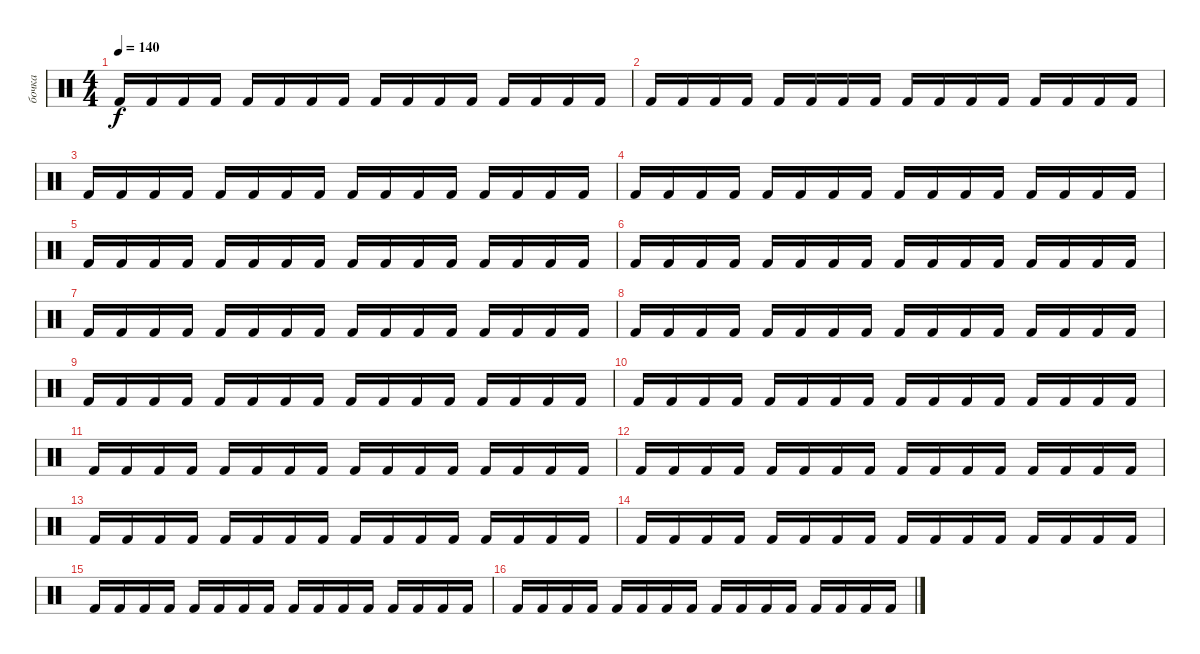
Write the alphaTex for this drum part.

\track ("бочка" "бочка") {mute instrument percussion}
\staff {score}
\articulation defaults
\ts (4 4)
\tempo 140
\clef neutral
\ks c "Kick (hit) 2".16{dy f} "Kick (hit) 2".16 "Kick (hit) 2".16 "Kick (hit) 2".16 "Kick (hit) 2".16 "Kick (hit) 2".16 "Kick (hit) 2".16 "Kick (hit) 2".16 "Kick (hit) 2".16 "Kick (hit) 2".16 "Kick (hit) 2".16 "Kick (hit) 2".16 "Kick (hit) 2".16 "Kick (hit) 2".16 "Kick (hit) 2".16 "Kick (hit) 2".16
|
"Kick (hit) 2".16 "Kick (hit) 2".16 "Kick (hit) 2".16 "Kick (hit) 2".16 "Kick (hit) 2".16 "Kick (hit) 2".16 "Kick (hit) 2".16 "Kick (hit) 2".16 "Kick (hit) 2".16 "Kick (hit) 2".16 "Kick (hit) 2".16 "Kick (hit) 2".16 "Kick (hit) 2".16 "Kick (hit) 2".16 "Kick (hit) 2".16 "Kick (hit) 2".16 |
"Kick (hit) 2".16 "Kick (hit) 2".16 "Kick (hit) 2".16 "Kick (hit) 2".16 "Kick (hit) 2".16 "Kick (hit) 2".16 "Kick (hit) 2".16 "Kick (hit) 2".16 "Kick (hit) 2".16 "Kick (hit) 2".16 "Kick (hit) 2".16 "Kick (hit) 2".16 "Kick (hit) 2".16 "Kick (hit) 2".16 "Kick (hit) 2".16 "Kick (hit) 2".16 |
"Kick (hit) 2".16 "Kick (hit) 2".16 "Kick (hit) 2".16 "Kick (hit) 2".16 "Kick (hit) 2".16 "Kick (hit) 2".16 "Kick (hit) 2".16 "Kick (hit) 2".16 "Kick (hit) 2".16 "Kick (hit) 2".16 "Kick (hit) 2".16 "Kick (hit) 2".16 "Kick (hit) 2".16 "Kick (hit) 2".16 "Kick (hit) 2".16 "Kick (hit) 2".16 |
"Kick (hit) 2".16 "Kick (hit) 2".16 "Kick (hit) 2".16 "Kick (hit) 2".16 "Kick (hit) 2".16 "Kick (hit) 2".16 "Kick (hit) 2".16 "Kick (hit) 2".16 "Kick (hit) 2".16 "Kick (hit) 2".16 "Kick (hit) 2".16 "Kick (hit) 2".16 "Kick (hit) 2".16 "Kick (hit) 2".16 "Kick (hit) 2".16 "Kick (hit) 2".16 |
"Kick (hit) 2".16 "Kick (hit) 2".16 "Kick (hit) 2".16 "Kick (hit) 2".16 "Kick (hit) 2".16 "Kick (hit) 2".16 "Kick (hit) 2".16 "Kick (hit) 2".16 "Kick (hit) 2".16 "Kick (hit) 2".16 "Kick (hit) 2".16 "Kick (hit) 2".16 "Kick (hit) 2".16 "Kick (hit) 2".16 "Kick (hit) 2".16 "Kick (hit) 2".16 |
"Kick (hit) 2".16 "Kick (hit) 2".16 "Kick (hit) 2".16 "Kick (hit) 2".16 "Kick (hit) 2".16 "Kick (hit) 2".16 "Kick (hit) 2".16 "Kick (hit) 2".16 "Kick (hit) 2".16 "Kick (hit) 2".16 "Kick (hit) 2".16 "Kick (hit) 2".16 "Kick (hit) 2".16 "Kick (hit) 2".16 "Kick (hit) 2".16 "Kick (hit) 2".16 |
"Kick (hit) 2".16 "Kick (hit) 2".16 "Kick (hit) 2".16 "Kick (hit) 2".16 "Kick (hit) 2".16 "Kick (hit) 2".16 "Kick (hit) 2".16 "Kick (hit) 2".16 "Kick (hit) 2".16 "Kick (hit) 2".16 "Kick (hit) 2".16 "Kick (hit) 2".16 "Kick (hit) 2".16 "Kick (hit) 2".16 "Kick (hit) 2".16 "Kick (hit) 2".16 |
"Kick (hit) 2".16 "Kick (hit) 2".16 "Kick (hit) 2".16 "Kick (hit) 2".16 "Kick (hit) 2".16 "Kick (hit) 2".16 "Kick (hit) 2".16 "Kick (hit) 2".16 "Kick (hit) 2".16 "Kick (hit) 2".16 "Kick (hit) 2".16 "Kick (hit) 2".16 "Kick (hit) 2".16 "Kick (hit) 2".16 "Kick (hit) 2".16 "Kick (hit) 2".16 |
"Kick (hit) 2".16 "Kick (hit) 2".16 "Kick (hit) 2".16 "Kick (hit) 2".16 "Kick (hit) 2".16 "Kick (hit) 2".16 "Kick (hit) 2".16 "Kick (hit) 2".16 "Kick (hit) 2".16 "Kick (hit) 2".16 "Kick (hit) 2".16 "Kick (hit) 2".16 "Kick (hit) 2".16 "Kick (hit) 2".16 "Kick (hit) 2".16 "Kick (hit) 2".16 |
"Kick (hit) 2".16 "Kick (hit) 2".16 "Kick (hit) 2".16 "Kick (hit) 2".16 "Kick (hit) 2".16 "Kick (hit) 2".16 "Kick (hit) 2".16 "Kick (hit) 2".16 "Kick (hit) 2".16 "Kick (hit) 2".16 "Kick (hit) 2".16 "Kick (hit) 2".16 "Kick (hit) 2".16 "Kick (hit) 2".16 "Kick (hit) 2".16 "Kick (hit) 2".16 |
"Kick (hit) 2".16 "Kick (hit) 2".16 "Kick (hit) 2".16 "Kick (hit) 2".16 "Kick (hit) 2".16 "Kick (hit) 2".16 "Kick (hit) 2".16 "Kick (hit) 2".16 "Kick (hit) 2".16 "Kick (hit) 2".16 "Kick (hit) 2".16 "Kick (hit) 2".16 "Kick (hit) 2".16 "Kick (hit) 2".16 "Kick (hit) 2".16 "Kick (hit) 2".16 |
"Kick (hit) 2".16 "Kick (hit) 2".16 "Kick (hit) 2".16 "Kick (hit) 2".16 "Kick (hit) 2".16 "Kick (hit) 2".16 "Kick (hit) 2".16 "Kick (hit) 2".16 "Kick (hit) 2".16 "Kick (hit) 2".16 "Kick (hit) 2".16 "Kick (hit) 2".16 "Kick (hit) 2".16 "Kick (hit) 2".16 "Kick (hit) 2".16 "Kick (hit) 2".16 |
"Kick (hit) 2".16 "Kick (hit) 2".16 "Kick (hit) 2".16 "Kick (hit) 2".16 "Kick (hit) 2".16 "Kick (hit) 2".16 "Kick (hit) 2".16 "Kick (hit) 2".16 "Kick (hit) 2".16 "Kick (hit) 2".16 "Kick (hit) 2".16 "Kick (hit) 2".16 "Kick (hit) 2".16 "Kick (hit) 2".16 "Kick (hit) 2".16 "Kick (hit) 2".16 |
"Kick (hit) 2".16 "Kick (hit) 2".16 "Kick (hit) 2".16 "Kick (hit) 2".16 "Kick (hit) 2".16 "Kick (hit) 2".16 "Kick (hit) 2".16 "Kick (hit) 2".16 "Kick (hit) 2".16 "Kick (hit) 2".16 "Kick (hit) 2".16 "Kick (hit) 2".16 "Kick (hit) 2".16 "Kick (hit) 2".16 "Kick (hit) 2".16 "Kick (hit) 2".16 |
"Kick (hit) 2".16 "Kick (hit) 2".16 "Kick (hit) 2".16 "Kick (hit) 2".16 "Kick (hit) 2".16 "Kick (hit) 2".16 "Kick (hit) 2".16 "Kick (hit) 2".16 "Kick (hit) 2".16 "Kick (hit) 2".16 "Kick (hit) 2".16 "Kick (hit) 2".16 "Kick (hit) 2".16 "Kick (hit) 2".16 "Kick (hit) 2".16 "Kick (hit) 2".16
